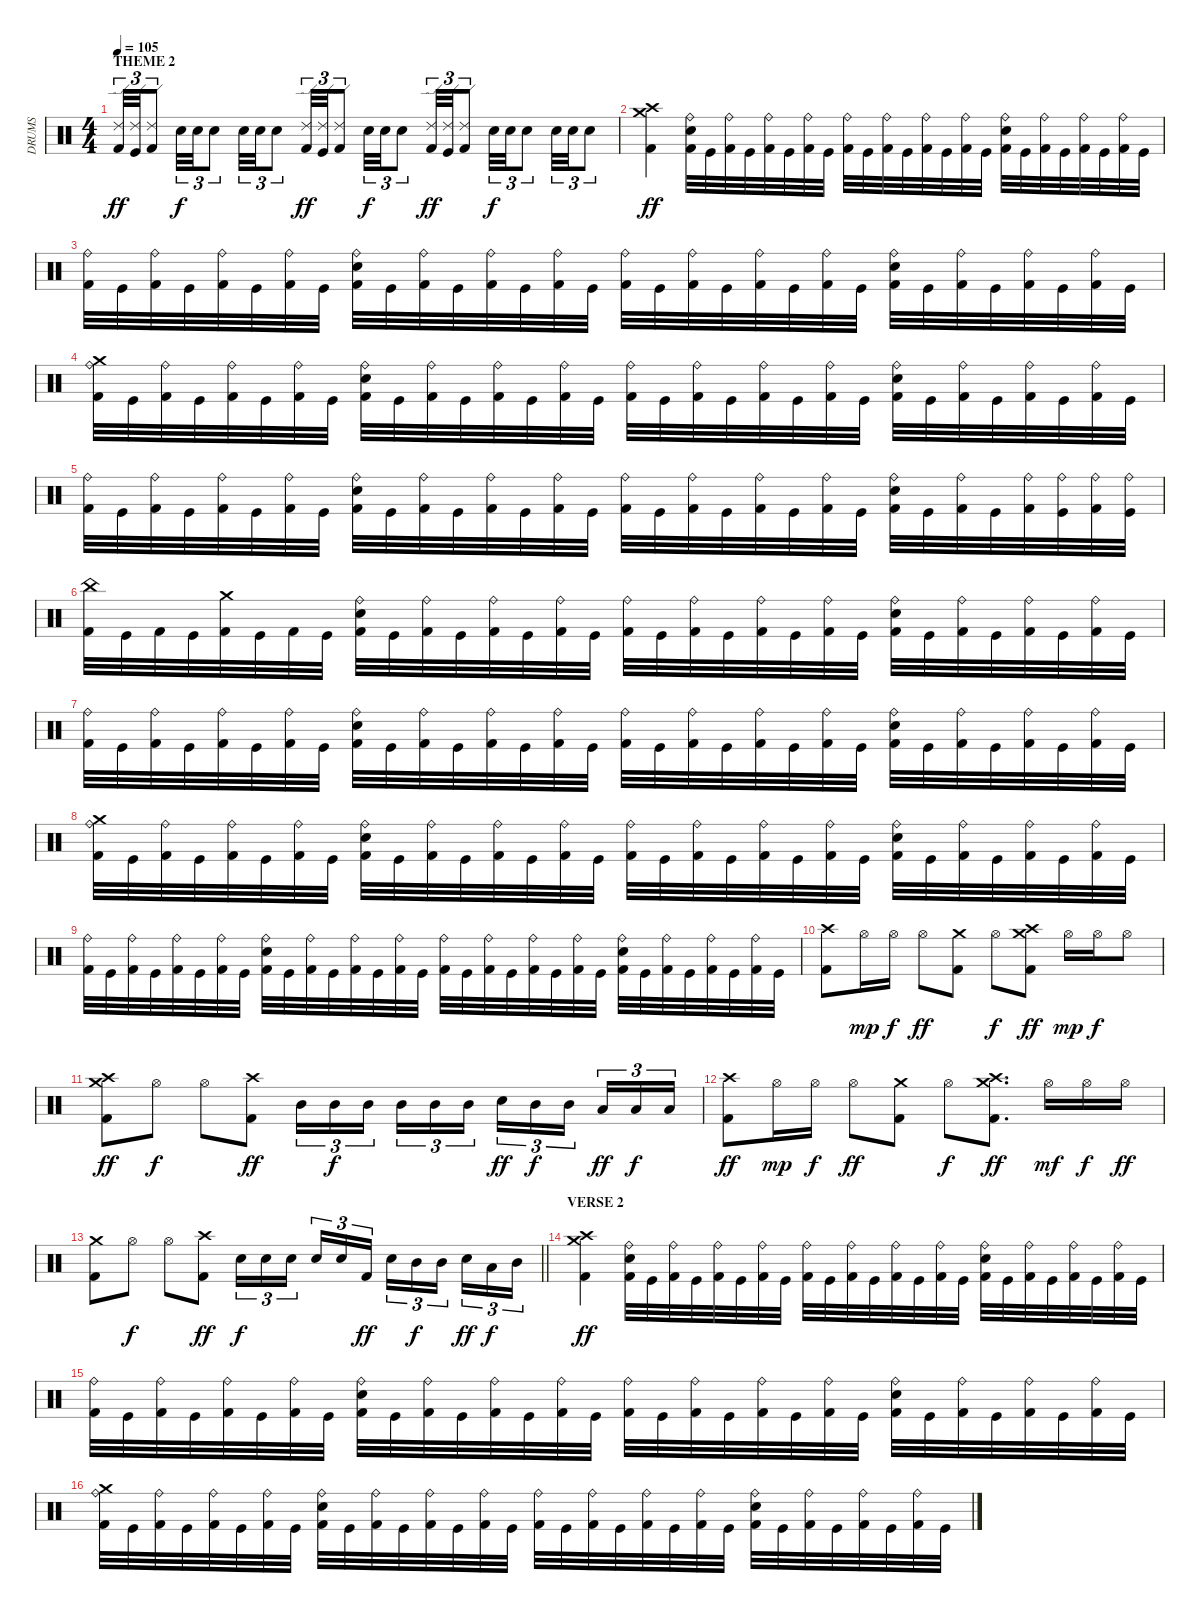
\track ("DRUMS" "DRUMS") {instrument percussion}
\staff {score}
\articulation defaults
\ts (4 4)
\section ("" "THEME 2")
\tempo 105
\clef neutral
\ks c
("Ride (edge) 2" "Kick (hit) 2").32{tu (3 2) dy ff} ("Ride (edge) 2" "Kick (hit)").32{tu (3 2)} ("Ride (edge) 2" "Kick (hit) 2").8{tu (3 2)} "Electric Snare (hit)".32{tu (3 2) dy f} "Snare (hit) 2".32{tu (3 2)} "Electric Snare (hit)".8{tu (3 2)} "Electric Snare (hit)".32{tu (3 2)} "Snare (hit) 2".32{tu (3 2)} "Electric Snare (hit)".8{tu (3 2)} ("Ride (edge) 2" "Kick (hit) 2").32{tu (3 2) dy ff} ("Ride (edge) 2" "Kick (hit)").32{tu (3 2)} ("Ride (edge) 2" "Kick (hit) 2").8{tu (3 2)} "Electric Snare (hit)".32{tu (3 2) dy f} "Snare (hit) 2".32{tu (3 2)} "Electric Snare (hit)".8{tu (3 2)} ("Ride (edge) 2" "Kick (hit) 2").32{tu (3 2) dy ff} ("Ride (edge) 2" "Kick (hit)").32{tu (3 2)} ("Ride (edge) 2" "Kick (hit) 2").8{tu (3 2)} "Electric Snare (hit)".32{tu (3 2) dy f} "Snare (hit) 2".32{tu (3 2)} "Electric Snare (hit)".8{tu (3 2)} "Electric Snare (hit)".32{tu (3 2)} "Snare (hit) 2".32{tu (3 2)} "Electric Snare (hit)".8{tu (3 2)} |
("Crash high (hit)" "Crash medium (hit)" "Kick (hit) 2").4{dy ff} ("Ride (bell)" "Snare (hit) 2" "Kick (hit) 2").32 "Kick (hit)".32 ("Ride (bell)" "Kick (hit) 2").32 "Kick (hit)".32 ("Ride (bell)" "Kick (hit) 2").32 "Kick (hit)".32 ("Ride (bell)" "Kick (hit) 2").32 "Kick (hit)".32 ("Ride (bell)" "Kick (hit) 2").32 "Kick (hit)".32 ("Ride (bell)" "Kick (hit) 2").32 "Kick (hit)".32 ("Ride (bell)" "Kick (hit) 2").32 "Kick (hit)".32 ("Ride (bell)" "Kick (hit) 2").32 "Kick (hit)".32 ("Ride (bell)" "Snare (hit) 2" "Kick (hit) 2").32 "Kick (hit)".32 ("Ride (bell)" "Kick (hit) 2").32 "Kick (hit)".32 ("Ride (bell)" "Kick (hit) 2").32 "Kick (hit)".32 ("Ride (bell)" "Kick (hit) 2").32 "Kick (hit)".32 |
("Ride (bell)" "Kick (hit) 2").32 "Kick (hit)".32 ("Ride (bell)" "Kick (hit) 2").32 "Kick (hit)".32 ("Ride (bell)" "Kick (hit) 2").32 "Kick (hit)".32 ("Ride (bell)" "Kick (hit) 2").32 "Kick (hit)".32 ("Ride (bell)" "Snare (hit) 2" "Kick (hit) 2").32 "Kick (hit)".32 ("Ride (bell)" "Kick (hit) 2").32 "Kick (hit)".32 ("Ride (bell)" "Kick (hit) 2").32 "Kick (hit)".32 ("Ride (bell)" "Kick (hit) 2").32 "Kick (hit)".32 ("Ride (bell)" "Kick (hit) 2").32 "Kick (hit)".32 ("Ride (bell)" "Kick (hit) 2").32 "Kick (hit)".32 ("Ride (bell)" "Kick (hit) 2").32 "Kick (hit)".32 ("Ride (bell)" "Kick (hit) 2").32 "Kick (hit)".32 ("Ride (bell)" "Snare (hit) 2" "Kick (hit) 2").32 "Kick (hit)".32 ("Ride (bell)" "Kick (hit) 2").32 "Kick (hit)".32 ("Ride (bell)" "Kick (hit) 2").32 "Kick (hit)".32 ("Ride (bell)" "Kick (hit) 2").32 "Kick (hit)".32 |
("Ride (bell)" "Crash medium (hit)" "Kick (hit) 2").32 "Kick (hit)".32 ("Ride (bell)" "Kick (hit) 2").32 "Kick (hit)".32 ("Ride (bell)" "Kick (hit) 2").32 "Kick (hit)".32 ("Ride (bell)" "Kick (hit) 2").32 "Kick (hit)".32 ("Ride (bell)" "Snare (hit) 2" "Kick (hit) 2").32 "Kick (hit)".32 ("Ride (bell)" "Kick (hit) 2").32 "Kick (hit)".32 ("Ride (bell)" "Kick (hit) 2").32 "Kick (hit)".32 ("Ride (bell)" "Kick (hit) 2").32 "Kick (hit)".32 ("Ride (bell)" "Kick (hit) 2").32 "Kick (hit)".32 ("Ride (bell)" "Kick (hit) 2").32 "Kick (hit)".32 ("Ride (bell)" "Kick (hit) 2").32 "Kick (hit)".32 ("Ride (bell)" "Kick (hit) 2").32 "Kick (hit)".32 ("Ride (bell)" "Snare (hit) 2" "Kick (hit) 2").32 "Kick (hit)".32 ("Ride (bell)" "Kick (hit) 2").32 "Kick (hit)".32 ("Ride (bell)" "Kick (hit) 2").32 "Kick (hit)".32 ("Ride (bell)" "Kick (hit) 2").32 "Kick (hit)".32 |
("Ride (bell)" "Kick (hit) 2").32 "Kick (hit)".32 ("Ride (bell)" "Kick (hit) 2").32 "Kick (hit)".32 ("Ride (bell)" "Kick (hit) 2").32 "Kick (hit)".32 ("Ride (bell)" "Kick (hit) 2").32 "Kick (hit)".32 ("Ride (bell)" "Snare (hit) 2" "Kick (hit) 2").32 "Kick (hit)".32 ("Ride (bell)" "Kick (hit) 2").32 "Kick (hit)".32 ("Ride (bell)" "Kick (hit) 2").32 "Kick (hit)".32 ("Ride (bell)" "Kick (hit) 2").32 "Kick (hit)".32 ("Ride (bell)" "Kick (hit) 2").32 "Kick (hit)".32 ("Ride (bell)" "Kick (hit) 2").32 "Kick (hit)".32 ("Ride (bell)" "Kick (hit) 2").32 "Kick (hit)".32 ("Ride (bell)" "Kick (hit) 2").32 "Kick (hit)".32 ("Ride (bell)" "Snare (hit) 2" "Kick (hit) 2").32 "Kick (hit)".32 ("Ride (bell)" "Kick (hit) 2").32 "Kick (hit)".32 ("Ride (bell)" "Kick (hit) 2").32 ("Ride (bell)" "Kick (hit)").32 ("Ride (bell)" "Kick (hit) 2").32 ("Ride (bell)" "Kick (hit)").32 |
("China (hit)" "Kick (hit) 2").32 "Kick (hit)".32 "Kick (hit) 2".32 "Kick (hit)".32 ("Crash medium (hit)" "Kick (hit) 2").32 "Kick (hit)".32 "Kick (hit) 2".32 "Kick (hit)".32 ("Ride (bell)" "Snare (hit) 2" "Kick (hit) 2").32 "Kick (hit)".32 ("Ride (bell)" "Kick (hit) 2").32 "Kick (hit)".32 ("Ride (bell)" "Kick (hit) 2").32 "Kick (hit)".32 ("Ride (bell)" "Kick (hit) 2").32 "Kick (hit)".32 ("Ride (bell)" "Kick (hit) 2").32 "Kick (hit)".32 ("Ride (bell)" "Kick (hit) 2").32 "Kick (hit)".32 ("Ride (bell)" "Kick (hit) 2").32 "Kick (hit)".32 ("Ride (bell)" "Kick (hit) 2").32 "Kick (hit)".32 ("Ride (bell)" "Snare (hit) 2" "Kick (hit) 2").32 "Kick (hit)".32 ("Ride (bell)" "Kick (hit) 2").32 "Kick (hit)".32 ("Ride (bell)" "Kick (hit) 2").32 "Kick (hit)".32 ("Ride (bell)" "Kick (hit) 2").32 "Kick (hit)".32 |
("Ride (bell)" "Kick (hit) 2").32 "Kick (hit)".32 ("Ride (bell)" "Kick (hit) 2").32 "Kick (hit)".32 ("Ride (bell)" "Kick (hit) 2").32 "Kick (hit)".32 ("Ride (bell)" "Kick (hit) 2").32 "Kick (hit)".32 ("Ride (bell)" "Snare (hit) 2" "Kick (hit) 2").32 "Kick (hit)".32 ("Ride (bell)" "Kick (hit) 2").32 "Kick (hit)".32 ("Ride (bell)" "Kick (hit) 2").32 "Kick (hit)".32 ("Ride (bell)" "Kick (hit) 2").32 "Kick (hit)".32 ("Ride (bell)" "Kick (hit) 2").32 "Kick (hit)".32 ("Ride (bell)" "Kick (hit) 2").32 "Kick (hit)".32 ("Ride (bell)" "Kick (hit) 2").32 "Kick (hit)".32 ("Ride (bell)" "Kick (hit) 2").32 "Kick (hit)".32 ("Ride (bell)" "Snare (hit) 2" "Kick (hit) 2").32 "Kick (hit)".32 ("Ride (bell)" "Kick (hit) 2").32 "Kick (hit)".32 ("Ride (bell)" "Kick (hit) 2").32 "Kick (hit)".32 ("Ride (bell)" "Kick (hit) 2").32 "Kick (hit)".32 |
("Ride (bell)" "Crash medium (hit)" "Kick (hit) 2").32 "Kick (hit)".32 ("Ride (bell)" "Kick (hit) 2").32 "Kick (hit)".32 ("Ride (bell)" "Kick (hit) 2").32 "Kick (hit)".32 ("Ride (bell)" "Kick (hit) 2").32 "Kick (hit)".32 ("Ride (bell)" "Snare (hit) 2" "Kick (hit) 2").32 "Kick (hit)".32 ("Ride (bell)" "Kick (hit) 2").32 "Kick (hit)".32 ("Ride (bell)" "Kick (hit) 2").32 "Kick (hit)".32 ("Ride (bell)" "Kick (hit) 2").32 "Kick (hit)".32 ("Ride (bell)" "Kick (hit) 2").32 "Kick (hit)".32 ("Ride (bell)" "Kick (hit) 2").32 "Kick (hit)".32 ("Ride (bell)" "Kick (hit) 2").32 "Kick (hit)".32 ("Ride (bell)" "Kick (hit) 2").32 "Kick (hit)".32 ("Ride (bell)" "Snare (hit) 2" "Kick (hit) 2").32 "Kick (hit)".32 ("Ride (bell)" "Kick (hit) 2").32 "Kick (hit)".32 ("Ride (bell)" "Kick (hit) 2").32 "Kick (hit)".32 ("Ride (bell)" "Kick (hit) 2").32 "Kick (hit)".32 |
("Ride (bell)" "Kick (hit) 2").32 "Kick (hit)".32 ("Ride (bell)" "Kick (hit) 2").32 "Kick (hit)".32 ("Ride (bell)" "Kick (hit) 2").32 "Kick (hit)".32 ("Ride (bell)" "Kick (hit) 2").32 "Kick (hit)".32 ("Ride (bell)" "Snare (hit) 2" "Kick (hit) 2").32 "Kick (hit)".32 ("Ride (bell)" "Kick (hit) 2").32 "Kick (hit)".32 ("Ride (bell)" "Kick (hit) 2").32 "Kick (hit)".32 ("Ride (bell)" "Kick (hit) 2").32 "Kick (hit)".32 ("Ride (bell)" "Kick (hit) 2").32 "Kick (hit)".32 ("Ride (bell)" "Kick (hit) 2").32 "Kick (hit)".32 ("Ride (bell)" "Kick (hit) 2").32 "Kick (hit)".32 ("Ride (bell)" "Kick (hit) 2").32 "Kick (hit)".32 ("Ride (bell)" "Snare (hit) 2" "Kick (hit) 2").32 "Kick (hit)".32 ("Ride (bell)" "Kick (hit) 2").32 "Kick (hit)".32 ("Ride (bell)" "Kick (hit) 2").32 "Kick (hit)".32 ("Ride (bell)" "Kick (hit) 2").32 "Kick (hit)".32 |
("Crash high (hit)" "Kick (hit) 2").8 "Hi-Hat (open)".16{dy mp} "Hi-Hat (open)".16{dy f} "Hi-Hat (open)".8{dy ff} ("Crash medium (hit)" "Kick (hit) 2").8 "Hi-Hat (open)".8{dy f} ("Crash medium (hit)" "Crash high (hit)" "Kick (hit) 2").8{dy ff} "Hi-Hat (open)".16{dy mp} "Hi-Hat (open)".16{dy f} "Hi-Hat (open)".8 |
("Crash high (hit)" "Crash medium (hit)" "Kick (hit) 2").8{dy ff} "Hi-Hat (open)".8{dy f} "Hi-Hat (open)".8 ("Crash high (hit)" "Kick (hit) 2").8{dy ff} "Mid Tom (hit)".16{tu (3 2)} "Mid Tom (hit)".16{tu (3 2) dy f} "Mid Tom (hit)".16{tu (3 2) beam splitsecondary} "Mid Tom (hit)".16{tu (3 2)} "Mid Tom (hit)".16{tu (3 2)} "Mid Tom (hit)".16{tu (3 2)} "Electric Snare (hit)".16{tu (3 2) dy ff} "Mid Tom (hit)".16{tu (3 2) dy f} "Mid Tom (hit)".16{tu (3 2) beam splitsecondary} "Low Tom (hit)".16{tu (3 2) dy ff} "Low Tom (hit)".16{tu (3 2) dy f} "Low Tom (hit)".16{tu (3 2)} |
("Crash high (hit)" "Kick (hit) 2").8{dy ff} "Hi-Hat (open)".16{dy mp} "Hi-Hat (open)".16{dy f} "Hi-Hat (open)".8{dy ff} ("Crash medium (hit)" "Kick (hit) 2").8 "Hi-Hat (open)".8{dy f} ("Crash medium (hit)" "Crash high (hit)" "Kick (hit) 2").8{d dy ff} "Hi-Hat (open)".16{dy mf} "Hi-Hat (open)".16{dy f} "Hi-Hat (open)".16{dy ff} |
\barLineRight lightlight
("Crash medium (hit)" "Kick (hit) 2").8 "Hi-Hat (open)".8{dy f} "Hi-Hat (open)".8 ("Crash high (hit)" "Kick (hit) 2").8{dy ff} "Electric Snare (hit)".16{tu (3 2) dy f} "Snare (hit) 2".16{tu (3 2)} "Electric Snare (hit)".16{tu (3 2) beam splitsecondary} "Snare (hit) 2".16{tu (3 2)} "Electric Snare (hit)".16{tu (3 2)} "Kick (hit) 2".16{tu (3 2) dy ff} "Electric Snare (hit)".16{tu (3 2)} "Mid Tom (hit)".16{tu (3 2) dy f} "Mid Tom (hit)".16{tu (3 2) beam splitsecondary} "Snare (hit) 2".16{tu (3 2) dy ff} "Low Tom (hit)".16{tu (3 2) dy f} "Mid Tom (hit)".16{tu (3 2)} |
\section ("" "VERSE 2")
("Crash high (hit)" "Crash medium (hit)" "Kick (hit) 2").4{dy ff} ("Ride (bell)" "Snare (hit) 2" "Kick (hit) 2").32 "Kick (hit)".32 ("Ride (bell)" "Kick (hit) 2").32 "Kick (hit)".32 ("Ride (bell)" "Kick (hit) 2").32 "Kick (hit)".32 ("Ride (bell)" "Kick (hit) 2").32 "Kick (hit)".32 ("Ride (bell)" "Kick (hit) 2").32 "Kick (hit)".32 ("Ride (bell)" "Kick (hit) 2").32 "Kick (hit)".32 ("Ride (bell)" "Kick (hit) 2").32 "Kick (hit)".32 ("Ride (bell)" "Kick (hit) 2").32 "Kick (hit)".32 ("Ride (bell)" "Snare (hit) 2" "Kick (hit) 2").32 "Kick (hit)".32 ("Ride (bell)" "Kick (hit) 2").32 "Kick (hit)".32 ("Ride (bell)" "Kick (hit) 2").32 "Kick (hit)".32 ("Ride (bell)" "Kick (hit) 2").32 "Kick (hit)".32 |
("Ride (bell)" "Kick (hit) 2").32 "Kick (hit)".32 ("Ride (bell)" "Kick (hit) 2").32 "Kick (hit)".32 ("Ride (bell)" "Kick (hit) 2").32 "Kick (hit)".32 ("Ride (bell)" "Kick (hit) 2").32 "Kick (hit)".32 ("Ride (bell)" "Snare (hit) 2" "Kick (hit) 2").32 "Kick (hit)".32 ("Ride (bell)" "Kick (hit) 2").32 "Kick (hit)".32 ("Ride (bell)" "Kick (hit) 2").32 "Kick (hit)".32 ("Ride (bell)" "Kick (hit) 2").32 "Kick (hit)".32 ("Ride (bell)" "Kick (hit) 2").32 "Kick (hit)".32 ("Ride (bell)" "Kick (hit) 2").32 "Kick (hit)".32 ("Ride (bell)" "Kick (hit) 2").32 "Kick (hit)".32 ("Ride (bell)" "Kick (hit) 2").32 "Kick (hit)".32 ("Ride (bell)" "Snare (hit) 2" "Kick (hit) 2").32 "Kick (hit)".32 ("Ride (bell)" "Kick (hit) 2").32 "Kick (hit)".32 ("Ride (bell)" "Kick (hit) 2").32 "Kick (hit)".32 ("Ride (bell)" "Kick (hit) 2").32 "Kick (hit)".32 |
("Ride (bell)" "Crash medium (hit)" "Kick (hit) 2").32 "Kick (hit)".32 ("Ride (bell)" "Kick (hit) 2").32 "Kick (hit)".32 ("Ride (bell)" "Kick (hit) 2").32 "Kick (hit)".32 ("Ride (bell)" "Kick (hit) 2").32 "Kick (hit)".32 ("Ride (bell)" "Snare (hit) 2" "Kick (hit) 2").32 "Kick (hit)".32 ("Ride (bell)" "Kick (hit) 2").32 "Kick (hit)".32 ("Ride (bell)" "Kick (hit) 2").32 "Kick (hit)".32 ("Ride (bell)" "Kick (hit) 2").32 "Kick (hit)".32 ("Ride (bell)" "Kick (hit) 2").32 "Kick (hit)".32 ("Ride (bell)" "Kick (hit) 2").32 "Kick (hit)".32 ("Ride (bell)" "Kick (hit) 2").32 "Kick (hit)".32 ("Ride (bell)" "Kick (hit) 2").32 "Kick (hit)".32 ("Ride (bell)" "Snare (hit) 2" "Kick (hit) 2").32 "Kick (hit)".32 ("Ride (bell)" "Kick (hit) 2").32 "Kick (hit)".32 ("Ride (bell)" "Kick (hit) 2").32 "Kick (hit)".32 ("Ride (bell)" "Kick (hit) 2").32 "Kick (hit)".32
